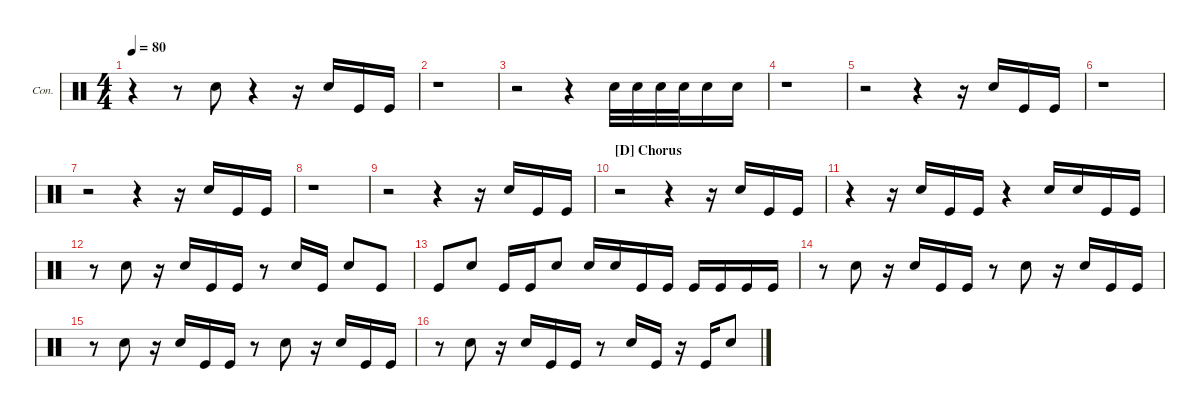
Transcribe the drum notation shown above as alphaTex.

\defaultSystemsLayout 4
\hideDynamics
\bracketExtendMode groupsimilarinstruments
\firstSystemTrackNameOrientation horizontal
\otherSystemsTrackNameOrientation horizontal
\track ("Congas" "Con.") {multiBarRest instrument percussion}
\staff {score}
\articulation defaults
\ts (4 4)
\tempo 80
\clef neutral
\ks c
r.4{dy mf} r.8 "Snare (hit) 2".8 r.4 r.16 "Snare (hit) 2".16 "Kick (hit)".16 "Kick (hit)".16 |
r.1 |
r.2 r.4 "Snare (hit) 2".32 "Snare (hit) 2".32 "Snare (hit) 2".32 "Snare (hit) 2".32 "Snare (hit) 2".16 "Snare (hit) 2".16 |
r.1 |
r.2 r.4 r.16 "Snare (hit) 2".16 "Kick (hit)".16 "Kick (hit)".16 |
r.1 |
r.2 r.4 r.16 "Snare (hit) 2".16 "Kick (hit)".16 "Kick (hit)".16 |
r.1 |
r.2 r.4 r.16 "Snare (hit) 2".16 "Kick (hit)".16 "Kick (hit)".16 |
\section ("D" "Chorus")
r.2 r.4 r.16 "Snare (hit) 2".16 "Kick (hit)".16 "Kick (hit)".16 |
r.4 r.16 "Snare (hit) 2".16 "Kick (hit)".16 "Kick (hit)".16 r.4 "Snare (hit) 2".16 "Snare (hit) 2".16 "Kick (hit)".16 "Kick (hit)".16 |
r.8 "Snare (hit) 2".8 r.16 "Snare (hit) 2".16 "Kick (hit)".16 "Kick (hit)".16 r.8 "Snare (hit) 2".16 "Kick (hit)".16 "Snare (hit) 2".8 "Kick (hit)".8 |
"Kick (hit)".8 "Snare (hit) 2".8 "Kick (hit)".16 "Kick (hit)".16 "Snare (hit) 2".8 "Snare (hit) 2".16 "Snare (hit) 2".16 "Kick (hit)".16 "Kick (hit)".16 "Kick (hit)".16 "Kick (hit)".16 "Kick (hit)".16 "Kick (hit)".16 |
r.8 "Snare (hit) 2".8 r.16 "Snare (hit) 2".16 "Kick (hit)".16 "Kick (hit)".16 r.8 "Snare (hit) 2".8 r.16 "Snare (hit) 2".16 "Kick (hit)".16 "Kick (hit)".16 |
r.8 "Snare (hit) 2".8 r.16 "Snare (hit) 2".16 "Kick (hit)".16 "Kick (hit)".16 r.8 "Snare (hit) 2".8 r.16 "Snare (hit) 2".16 "Kick (hit)".16 "Kick (hit)".16 |
r.8 "Snare (hit) 2".8 r.16 "Snare (hit) 2".16 "Kick (hit)".16 "Kick (hit)".16 r.8 "Snare (hit) 2".16 "Kick (hit)".16 r.16 "Kick (hit)".16 "Snare (hit) 2".8
